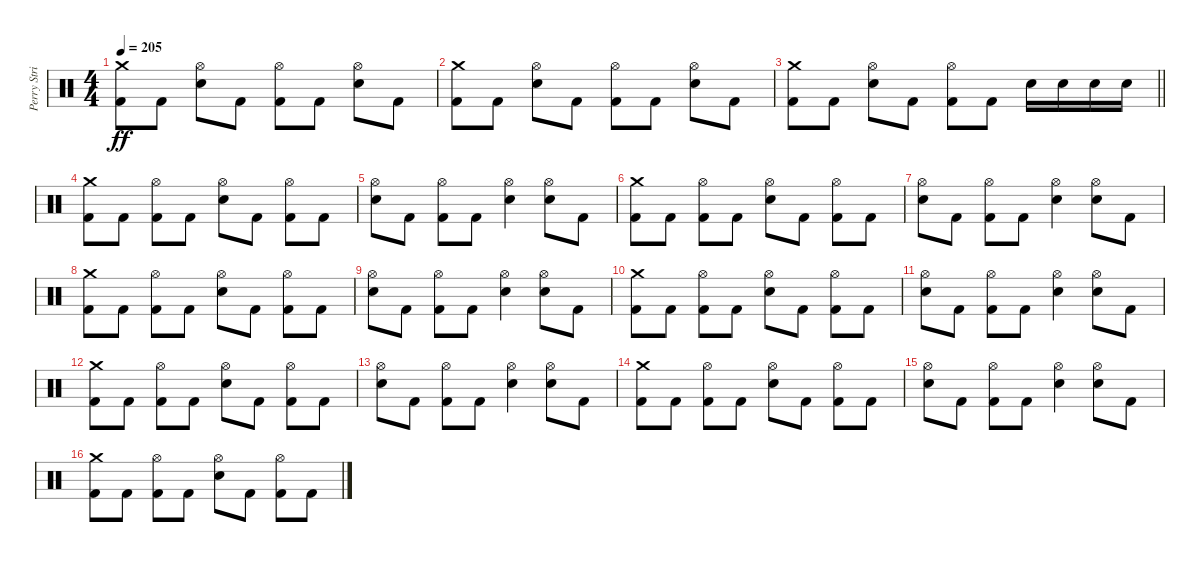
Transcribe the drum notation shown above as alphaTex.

\track ("Perry Strickland" "Perry Stri") {instrument percussion}
\staff {score}
\articulation defaults
\ts (4 4)
\tempo 205
\clef neutral
\ks c
("Crash medium (hit)" "Kick (hit) 2").8{dy ff} "Kick (hit) 2".8 ("Hi-Hat (open)" "Snare (hit) 2").8 "Kick (hit) 2".8 ("Hi-Hat (open)" "Kick (hit) 2").8 "Kick (hit) 2".8 ("Hi-Hat (open)" "Snare (hit) 2").8 "Kick (hit) 2".8 |
("Crash medium (hit)" "Kick (hit) 2").8 "Kick (hit) 2".8 ("Hi-Hat (open)" "Snare (hit) 2").8 "Kick (hit) 2".8 ("Hi-Hat (open)" "Kick (hit) 2").8 "Kick (hit) 2".8 ("Hi-Hat (open)" "Snare (hit) 2").8 "Kick (hit) 2".8 |
\barLineRight lightlight
("Crash medium (hit)" "Kick (hit) 2").8 "Kick (hit) 2".8 ("Hi-Hat (open)" "Snare (hit) 2").8 "Kick (hit) 2".8 ("Hi-Hat (open)" "Kick (hit) 2").8 "Kick (hit) 2".8 "Snare (hit) 2".16 "Snare (hit) 2".16 "Snare (hit) 2".16 "Snare (hit) 2".16 |
("Crash medium (hit)" "Kick (hit) 2").8 "Kick (hit) 2".8 ("Hi-Hat (open)" "Kick (hit) 2").8 "Kick (hit) 2".8 ("Hi-Hat (open)" "Snare (hit) 2").8 "Kick (hit) 2".8 ("Hi-Hat (open)" "Kick (hit) 2").8 "Kick (hit) 2".8 |
("Hi-Hat (open)" "Snare (hit) 2").8 "Kick (hit) 2".8 ("Hi-Hat (open)" "Kick (hit) 2").8 "Kick (hit) 2".8 ("Hi-Hat (open)" "Snare (hit) 2").4 ("Hi-Hat (open)" "Snare (hit) 2").8 "Kick (hit) 2".8 |
("Crash medium (hit)" "Kick (hit) 2").8 "Kick (hit) 2".8 ("Hi-Hat (open)" "Kick (hit) 2").8 "Kick (hit) 2".8 ("Hi-Hat (open)" "Snare (hit) 2").8 "Kick (hit) 2".8 ("Hi-Hat (open)" "Kick (hit) 2").8 "Kick (hit) 2".8 |
("Hi-Hat (open)" "Snare (hit) 2").8 "Kick (hit) 2".8 ("Hi-Hat (open)" "Kick (hit) 2").8 "Kick (hit) 2".8 ("Hi-Hat (open)" "Snare (hit) 2").4 ("Hi-Hat (open)" "Snare (hit) 2").8 "Kick (hit) 2".8 |
("Crash medium (hit)" "Kick (hit) 2").8 "Kick (hit) 2".8 ("Hi-Hat (open)" "Kick (hit) 2").8 "Kick (hit) 2".8 ("Hi-Hat (open)" "Snare (hit) 2").8 "Kick (hit) 2".8 ("Hi-Hat (open)" "Kick (hit) 2").8 "Kick (hit) 2".8 |
("Hi-Hat (open)" "Snare (hit) 2").8 "Kick (hit) 2".8 ("Hi-Hat (open)" "Kick (hit) 2").8 "Kick (hit) 2".8 ("Hi-Hat (open)" "Snare (hit) 2").4 ("Hi-Hat (open)" "Snare (hit) 2").8 "Kick (hit) 2".8 |
("Crash medium (hit)" "Kick (hit) 2").8 "Kick (hit) 2".8 ("Hi-Hat (open)" "Kick (hit) 2").8 "Kick (hit) 2".8 ("Hi-Hat (open)" "Snare (hit) 2").8 "Kick (hit) 2".8 ("Hi-Hat (open)" "Kick (hit) 2").8 "Kick (hit) 2".8 |
("Hi-Hat (open)" "Snare (hit) 2").8 "Kick (hit) 2".8 ("Hi-Hat (open)" "Kick (hit) 2").8 "Kick (hit) 2".8 ("Hi-Hat (open)" "Snare (hit) 2").4 ("Hi-Hat (open)" "Snare (hit) 2").8 "Kick (hit) 2".8 |
("Crash medium (hit)" "Kick (hit) 2").8 "Kick (hit) 2".8 ("Hi-Hat (open)" "Kick (hit) 2").8 "Kick (hit) 2".8 ("Hi-Hat (open)" "Snare (hit) 2").8 "Kick (hit) 2".8 ("Hi-Hat (open)" "Kick (hit) 2").8 "Kick (hit) 2".8 |
("Hi-Hat (open)" "Snare (hit) 2").8 "Kick (hit) 2".8 ("Hi-Hat (open)" "Kick (hit) 2").8 "Kick (hit) 2".8 ("Hi-Hat (open)" "Snare (hit) 2").4 ("Hi-Hat (open)" "Snare (hit) 2").8 "Kick (hit) 2".8 |
("Crash medium (hit)" "Kick (hit) 2").8 "Kick (hit) 2".8 ("Hi-Hat (open)" "Kick (hit) 2").8 "Kick (hit) 2".8 ("Hi-Hat (open)" "Snare (hit) 2").8 "Kick (hit) 2".8 ("Hi-Hat (open)" "Kick (hit) 2").8 "Kick (hit) 2".8 |
("Hi-Hat (open)" "Snare (hit) 2").8 "Kick (hit) 2".8 ("Hi-Hat (open)" "Kick (hit) 2").8 "Kick (hit) 2".8 ("Hi-Hat (open)" "Snare (hit) 2").4 ("Hi-Hat (open)" "Snare (hit) 2").8 "Kick (hit) 2".8 |
("Crash medium (hit)" "Kick (hit) 2").8 "Kick (hit) 2".8 ("Hi-Hat (open)" "Kick (hit) 2").8 "Kick (hit) 2".8 ("Hi-Hat (open)" "Snare (hit) 2").8 "Kick (hit) 2".8 ("Hi-Hat (open)" "Kick (hit) 2").8 "Kick (hit) 2".8
